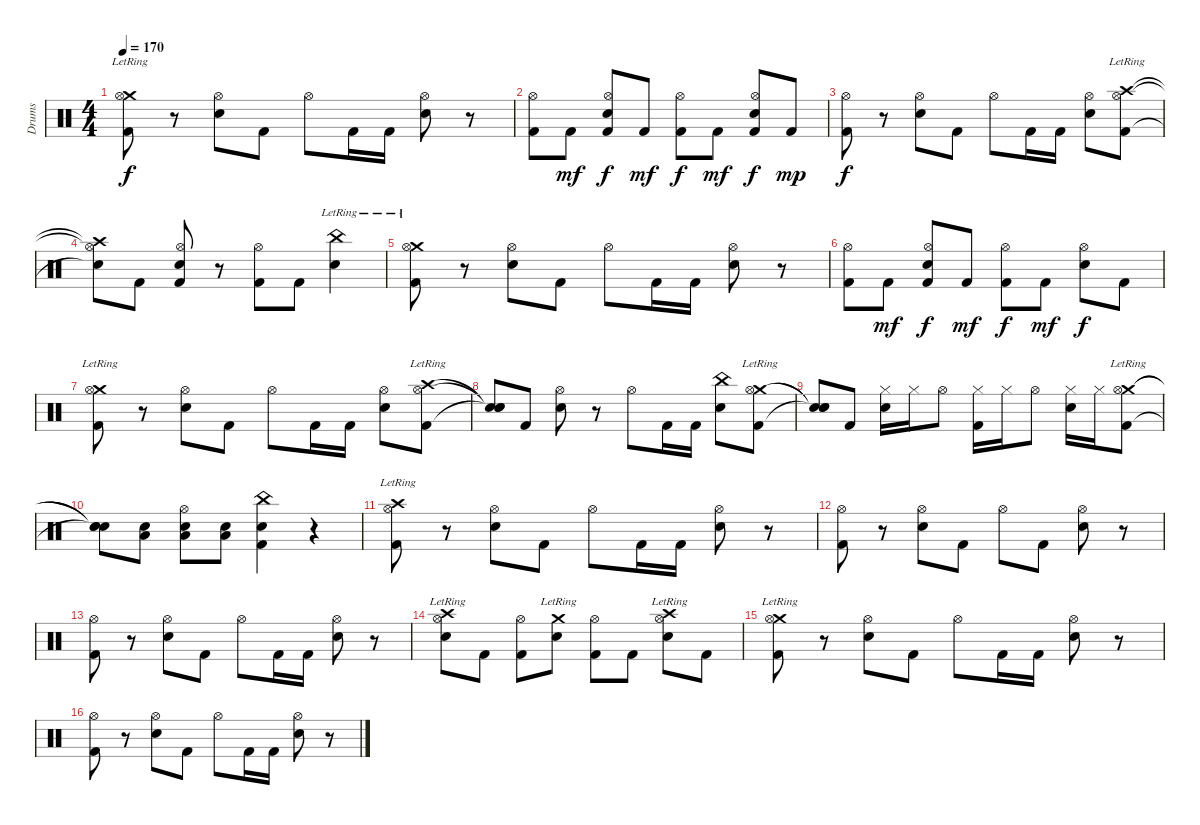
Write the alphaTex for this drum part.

\track ("Drums" "Drums") {instrument percussion}
\staff {score}
\articulation defaults
\ts (4 4)
\tempo 170
\clef neutral
\ks c
("Crash medium (hit)"{lr} "Kick (hit) 2" "Hi-Hat (open)").8{dy f} r.8 ("Electric Snare (hit)" "Hi-Hat (open)").8 "Kick (hit) 2".8 "Hi-Hat (open)".8 "Kick (hit) 2".16 "Kick (hit) 2".16 ("Electric Snare (hit)" "Hi-Hat (open)").8 r.8 |
("Kick (hit) 2" "Hi-Hat (open)").8 "Kick (hit) 2".8{dy mf} ("Electric Snare (hit)" "Kick (hit) 2" "Hi-Hat (open)").8{dy f} "Kick (hit) 2".8{dy mf} ("Kick (hit) 2" "Hi-Hat (open)").8{dy f} "Kick (hit) 2".8{dy mf} ("Electric Snare (hit)" "Kick (hit) 2" "Hi-Hat (open)").8{dy f} "Kick (hit) 2".8{dy mp} |
("Kick (hit) 2" "Hi-Hat (open)").8{dy f} r.8 ("Electric Snare (hit)" "Hi-Hat (open)").8 "Kick (hit) 2".8 "Hi-Hat (open)".8 "Kick (hit) 2".16 "Kick (hit) 2".16 ("Electric Snare (hit)" "Hi-Hat (open)").8 ("Crash high (hit)"{lr} "Kick (hit) 2" "Hi-Hat (open)").8 |
("Crash high (hit)"{t} "Snare (hit)"{t} "Hi-Hat (open)"{t}).8 "Kick (hit) 2".8 ("Electric Snare (hit)" "Kick (hit) 2" "Hi-Hat (open)").8 r.8 ("Kick (hit) 2" "Hi-Hat (open)").8 "Kick (hit) 2".8 ("China (hit)"{lr} "Electric Snare (hit)").4 |
("Crash medium (hit)"{lr} "Kick (hit) 2" "Hi-Hat (open)").8 r.8 ("Electric Snare (hit)" "Hi-Hat (open)").8 "Kick (hit) 2".8 "Hi-Hat (open)".8 "Kick (hit) 2".16 "Kick (hit) 2".16 ("Electric Snare (hit)" "Hi-Hat (open)").8 r.8 |
("Kick (hit) 2" "Hi-Hat (open)").8 "Kick (hit) 2".8{dy mf} ("Electric Snare (hit)" "Kick (hit) 2" "Hi-Hat (open)").8{dy f} "Kick (hit) 2".8{dy mf} ("Kick (hit) 2" "Hi-Hat (open)").8{dy f} "Kick (hit) 2".8{dy mf} ("Electric Snare (hit)" "Hi-Hat (open)").8{dy f} "Kick (hit) 2".8 |
("Crash medium (hit)"{lr} "Kick (hit) 2" "Hi-Hat (open)").8 r.8 ("Electric Snare (hit)" "Hi-Hat (open)").8 "Kick (hit) 2".8 "Hi-Hat (open)".8 "Kick (hit) 2".16 "Kick (hit) 2".16 ("Electric Snare (hit)" "Hi-Hat (open)").8 ("Crash high (hit)"{lr} "Kick (hit) 2" "Hi-Hat (open)").8 |
("Snare (hit)"{t} "Snare (hit)"{t} "Snare (hit)"{t}).8 "Kick (hit) 2".8 ("Electric Snare (hit)" "Hi-Hat (open)").8 r.8 "Hi-Hat (open)".8 "Kick (hit) 2".16 "Kick (hit) 2".16 ("China (hit)" "Electric Snare (hit)").8 ("Crash medium (hit)"{lr} "Kick (hit) 2" "Hi-Hat (open)").8 |
("Snare (hit)"{t} "Snare (hit)"{t} "Snare (hit)"{t}).8 "Kick (hit) 2".8 ("Electric Snare (hit)" "Hi-Hat (closed)").16 "Hi-Hat (closed)".16 "Hi-Hat (open)".8 ("Kick (hit) 2" "Hi-Hat (closed)").16 "Hi-Hat (closed)".16 "Hi-Hat (open)".8 ("Electric Snare (hit)" "Hi-Hat (closed)").16 "Hi-Hat (closed)".16 ("Crash medium (hit)"{lr} "Kick (hit) 2" "Hi-Hat (open)").8 |
("Snare (hit)"{t} "Snare (hit)"{t} "Snare (hit)"{t}).8 ("Electric Snare (hit)" "Low Floor Tom (hit)").8 ("Electric Snare (hit)" "Low Floor Tom (hit)" "Hi-Hat (open)").8 ("Electric Snare (hit)" "Low Floor Tom (hit)").8 ("China (hit)" "Electric Snare (hit)" "Kick (hit) 2").4 r.4 |
("Crash high (hit)"{lr} "Kick (hit) 2" "Hi-Hat (open)").8 r.8 ("Electric Snare (hit)" "Hi-Hat (open)").8 "Kick (hit) 2".8 "Hi-Hat (open)".8 "Kick (hit) 2".16 "Kick (hit) 2".16 ("Electric Snare (hit)" "Hi-Hat (open)").8 r.8 |
("Kick (hit) 2" "Hi-Hat (open)").8 r.8 ("Electric Snare (hit)" "Hi-Hat (open)").8 "Kick (hit) 2".8 "Hi-Hat (open)".8 "Kick (hit) 2".8 ("Electric Snare (hit)" "Hi-Hat (open)").8 r.8 |
("Kick (hit) 2" "Hi-Hat (open)").8 r.8 ("Electric Snare (hit)" "Hi-Hat (open)").8 "Kick (hit) 2".8 "Hi-Hat (open)".8 "Kick (hit) 2".16 "Kick (hit) 2".16 ("Electric Snare (hit)" "Hi-Hat (open)").8 r.8 |
("Crash high (hit)"{lr} "Electric Snare (hit)" "Hi-Hat (open)").8 "Kick (hit) 2".8 ("Kick (hit) 2" "Hi-Hat (open)").8 ("Crash medium (hit)"{lr} "Electric Snare (hit)").8 ("Kick (hit) 2" "Hi-Hat (open)").8 "Kick (hit) 2".8 ("Crash high (hit)"{lr} "Electric Snare (hit)" "Hi-Hat (open)").8 "Kick (hit) 2".8 |
("Crash medium (hit)"{lr} "Kick (hit) 2" "Hi-Hat (open)").8 r.8 ("Electric Snare (hit)" "Hi-Hat (open)").8 "Kick (hit) 2".8 "Hi-Hat (open)".8 "Kick (hit) 2".16 "Kick (hit) 2".16 ("Electric Snare (hit)" "Hi-Hat (open)").8 r.8 |
("Kick (hit) 2" "Hi-Hat (open)").8 r.8 ("Electric Snare (hit)" "Hi-Hat (open)").8 "Kick (hit) 2".8 "Hi-Hat (open)".8 "Kick (hit) 2".16 "Kick (hit) 2".16 ("Electric Snare (hit)" "Hi-Hat (open)").8 r.8
